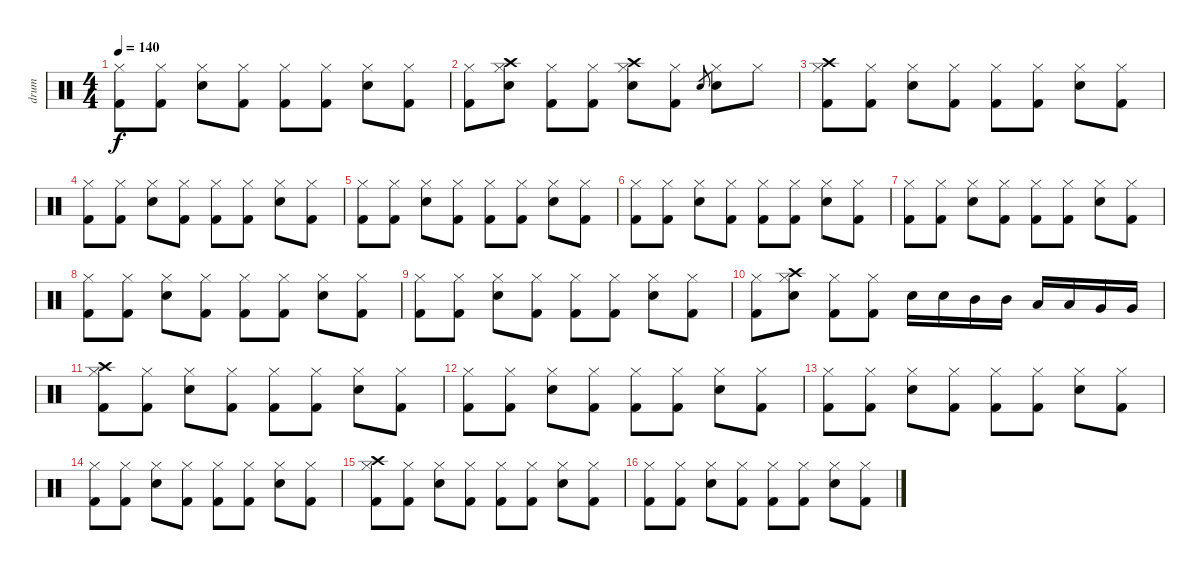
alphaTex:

\track ("drum" "drum") {instrument percussion}
\staff {score}
\articulation defaults
\ts (4 4)
\tempo 140
\clef neutral
\ks c
("Hi-Hat (closed)" "Kick (hit) 2").8{dy f} ("Hi-Hat (closed)" "Kick (hit) 2").8 ("Hi-Hat (closed)" "Electric Snare (hit)").8 ("Hi-Hat (closed)" "Kick (hit) 2").8 ("Hi-Hat (closed)" "Kick (hit) 2").8 ("Hi-Hat (closed)" "Kick (hit) 2").8 ("Hi-Hat (closed)" "Electric Snare (hit)").8 ("Hi-Hat (closed)" "Kick (hit) 2").8 |
("Hi-Hat (closed)" "Kick (hit) 2").8 ("Crash high (hit)" "Hi-Hat (closed)" "Electric Snare (hit)").8 ("Hi-Hat (closed)" "Kick (hit) 2").8 ("Hi-Hat (closed)" "Kick (hit) 2").8 ("Crash high (hit)" "Hi-Hat (closed)" "Electric Snare (hit)").8 ("Hi-Hat (closed)" "Kick (hit) 2").8 "Electric Snare (hit)".8{gr} ("Hi-Hat (closed)" "Electric Snare (hit)").8 "Hi-Hat (closed)".8 |
("Crash high (hit)" "Hi-Hat (closed)" "Kick (hit) 2").8 ("Hi-Hat (closed)" "Kick (hit) 2").8 ("Hi-Hat (closed)" "Electric Snare (hit)").8 ("Hi-Hat (closed)" "Kick (hit) 2").8 ("Hi-Hat (closed)" "Kick (hit) 2").8 ("Hi-Hat (closed)" "Kick (hit) 2").8 ("Hi-Hat (closed)" "Electric Snare (hit)").8 ("Hi-Hat (closed)" "Kick (hit) 2").8 |
("Hi-Hat (closed)" "Kick (hit) 2").8 ("Hi-Hat (closed)" "Kick (hit) 2").8 ("Hi-Hat (closed)" "Electric Snare (hit)").8 ("Hi-Hat (closed)" "Kick (hit) 2").8 ("Hi-Hat (closed)" "Kick (hit) 2").8 ("Hi-Hat (closed)" "Kick (hit) 2").8 ("Hi-Hat (closed)" "Electric Snare (hit)").8 ("Hi-Hat (closed)" "Kick (hit) 2").8 |
("Hi-Hat (closed)" "Kick (hit) 2").8 ("Hi-Hat (closed)" "Kick (hit) 2").8 ("Hi-Hat (closed)" "Electric Snare (hit)").8 ("Hi-Hat (closed)" "Kick (hit) 2").8 ("Hi-Hat (closed)" "Kick (hit) 2").8 ("Hi-Hat (closed)" "Kick (hit) 2").8 ("Hi-Hat (closed)" "Electric Snare (hit)").8 ("Hi-Hat (closed)" "Kick (hit) 2").8 |
("Hi-Hat (closed)" "Kick (hit) 2").8 ("Hi-Hat (closed)" "Kick (hit) 2").8 ("Hi-Hat (closed)" "Electric Snare (hit)").8 ("Hi-Hat (closed)" "Kick (hit) 2").8 ("Hi-Hat (closed)" "Kick (hit) 2").8 ("Hi-Hat (closed)" "Kick (hit) 2").8 ("Hi-Hat (closed)" "Electric Snare (hit)").8 ("Hi-Hat (closed)" "Kick (hit) 2").8 |
("Hi-Hat (closed)" "Kick (hit) 2").8 ("Hi-Hat (closed)" "Kick (hit) 2").8 ("Hi-Hat (closed)" "Electric Snare (hit)").8 ("Hi-Hat (closed)" "Kick (hit) 2").8 ("Hi-Hat (closed)" "Kick (hit) 2").8 ("Hi-Hat (closed)" "Kick (hit) 2").8 ("Hi-Hat (closed)" "Electric Snare (hit)").8 ("Hi-Hat (closed)" "Kick (hit) 2").8 |
("Hi-Hat (closed)" "Kick (hit) 2").8 ("Hi-Hat (closed)" "Kick (hit) 2").8 ("Hi-Hat (closed)" "Electric Snare (hit)").8 ("Hi-Hat (closed)" "Kick (hit) 2").8 ("Hi-Hat (closed)" "Kick (hit) 2").8 ("Hi-Hat (closed)" "Kick (hit) 2").8 ("Hi-Hat (closed)" "Electric Snare (hit)").8 ("Hi-Hat (closed)" "Kick (hit) 2").8 |
("Hi-Hat (closed)" "Kick (hit) 2").8 ("Hi-Hat (closed)" "Kick (hit) 2").8 ("Hi-Hat (closed)" "Electric Snare (hit)").8 ("Hi-Hat (closed)" "Kick (hit) 2").8 ("Hi-Hat (closed)" "Kick (hit) 2").8 ("Hi-Hat (closed)" "Kick (hit) 2").8 ("Hi-Hat (closed)" "Electric Snare (hit)").8 ("Hi-Hat (closed)" "Kick (hit) 2").8 |
("Hi-Hat (closed)" "Kick (hit) 2").8 ("Crash high (hit)" "Hi-Hat (closed)" "Electric Snare (hit)").8 ("Hi-Hat (closed)" "Kick (hit) 2").8 ("Hi-Hat (closed)" "Kick (hit) 2").8 "Electric Snare (hit)".16 "Electric Snare (hit)".16 "Mid Tom (hit)".16 "Mid Tom (hit)".16 "Low Tom (hit)".16 "Low Tom (hit)".16 "Very Low Tom (hit)".16 "Very Low Tom (hit)".16 |
("Crash high (hit)" "Hi-Hat (closed)" "Kick (hit) 2").8 ("Hi-Hat (closed)" "Kick (hit) 2").8 ("Hi-Hat (closed)" "Electric Snare (hit)").8 ("Hi-Hat (closed)" "Kick (hit) 2").8 ("Hi-Hat (closed)" "Kick (hit) 2").8 ("Hi-Hat (closed)" "Kick (hit) 2").8 ("Hi-Hat (closed)" "Electric Snare (hit)").8 ("Hi-Hat (closed)" "Kick (hit) 2").8 |
("Hi-Hat (closed)" "Kick (hit) 2").8 ("Hi-Hat (closed)" "Kick (hit) 2").8 ("Hi-Hat (closed)" "Electric Snare (hit)").8 ("Hi-Hat (closed)" "Kick (hit) 2").8 ("Hi-Hat (closed)" "Kick (hit) 2").8 ("Hi-Hat (closed)" "Kick (hit) 2").8 ("Hi-Hat (closed)" "Electric Snare (hit)").8 ("Hi-Hat (closed)" "Kick (hit) 2").8 |
("Hi-Hat (closed)" "Kick (hit) 2").8 ("Hi-Hat (closed)" "Kick (hit) 2").8 ("Hi-Hat (closed)" "Electric Snare (hit)").8 ("Hi-Hat (closed)" "Kick (hit) 2").8 ("Hi-Hat (closed)" "Kick (hit) 2").8 ("Hi-Hat (closed)" "Kick (hit) 2").8 ("Hi-Hat (closed)" "Electric Snare (hit)").8 ("Hi-Hat (closed)" "Kick (hit) 2").8 |
("Hi-Hat (closed)" "Kick (hit) 2").8 ("Hi-Hat (closed)" "Kick (hit) 2").8 ("Hi-Hat (closed)" "Electric Snare (hit)").8 ("Hi-Hat (closed)" "Kick (hit) 2").8 ("Hi-Hat (closed)" "Kick (hit) 2").8 ("Hi-Hat (closed)" "Kick (hit) 2").8 ("Hi-Hat (closed)" "Electric Snare (hit)").8 ("Hi-Hat (closed)" "Kick (hit) 2").8 |
("Crash high (hit)" "Hi-Hat (closed)" "Kick (hit) 2").8 ("Hi-Hat (closed)" "Kick (hit) 2").8 ("Hi-Hat (closed)" "Electric Snare (hit)").8 ("Hi-Hat (closed)" "Kick (hit) 2").8 ("Hi-Hat (closed)" "Kick (hit) 2").8 ("Hi-Hat (closed)" "Kick (hit) 2").8 ("Hi-Hat (closed)" "Electric Snare (hit)").8 ("Hi-Hat (closed)" "Kick (hit) 2").8 |
("Hi-Hat (closed)" "Kick (hit) 2").8 ("Hi-Hat (closed)" "Kick (hit) 2").8 ("Hi-Hat (closed)" "Electric Snare (hit)").8 ("Hi-Hat (closed)" "Kick (hit) 2").8 ("Hi-Hat (closed)" "Kick (hit) 2").8 ("Hi-Hat (closed)" "Kick (hit) 2").8 ("Hi-Hat (closed)" "Electric Snare (hit)").8 ("Hi-Hat (closed)" "Kick (hit) 2").8
